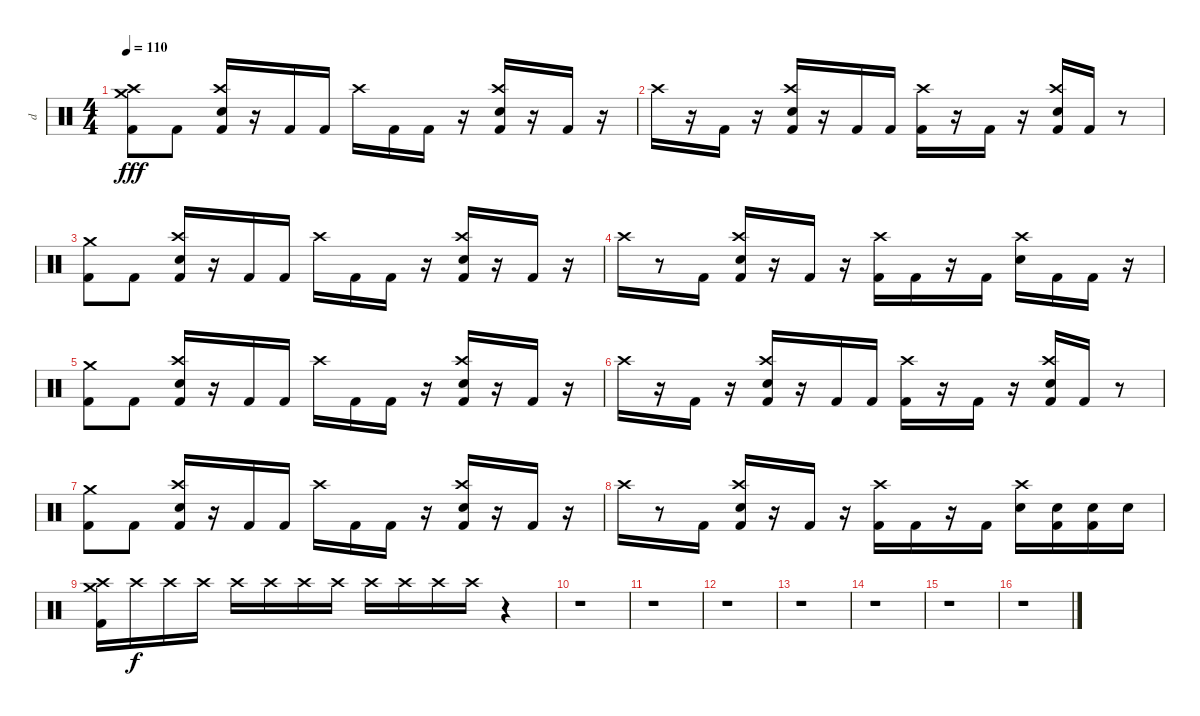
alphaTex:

\track ("d" "d") {instrument percussion}
\staff {score}
\articulation defaults
\ts (4 4)
\tempo 110
\clef neutral
\ks c
("Crash medium (hit)" "Kick (hit) 2" "Crash high (hit)").8{dy fff} "Kick (hit) 2".8 ("Electric Snare (hit)" "Kick (hit) 2" "Crash high (hit)").16 r.16 "Kick (hit) 2".16 "Kick (hit) 2".16 "Crash high (hit)".16 "Kick (hit) 2".16 "Kick (hit) 2".16 r.16 ("Crash high (hit)" "Kick (hit) 2" "Electric Snare (hit)").16 r.16 "Kick (hit) 2".16 r.16 |
"Crash high (hit)".16 r.16 "Kick (hit) 2".16 r.16 ("Crash high (hit)" "Kick (hit) 2" "Electric Snare (hit)").16 r.16 "Kick (hit) 2".16 "Kick (hit) 2".16 ("Kick (hit) 2" "Crash high (hit)").16 r.16 "Kick (hit) 2".16 r.16 ("Kick (hit) 2" "Electric Snare (hit)" "Crash high (hit)").16 "Kick (hit) 2".16 r.8 |
("Kick (hit) 2" "Crash medium (hit)").8 "Kick (hit) 2".8 ("Crash high (hit)" "Kick (hit) 2" "Electric Snare (hit)").16 r.16 "Kick (hit) 2".16 "Kick (hit) 2".16 "Crash high (hit)".16 "Kick (hit) 2".16 "Kick (hit) 2".16 r.16 ("Kick (hit) 2" "Crash high (hit)" "Electric Snare (hit)").16 r.16 "Kick (hit) 2".16 r.16 |
"Crash high (hit)".16 r.8 "Kick (hit) 2".16 ("Electric Snare (hit)" "Kick (hit) 2" "Crash high (hit)").16 r.16 "Kick (hit) 2".16 r.16 ("Kick (hit) 2" "Crash high (hit)").16 "Kick (hit) 2".16 r.16 "Kick (hit) 2".16 ("Electric Snare (hit)" "Crash high (hit)").16 "Kick (hit) 2".16 "Kick (hit) 2".16 r.16 |
("Crash medium (hit)" "Kick (hit) 2").8 "Kick (hit) 2".8 ("Electric Snare (hit)" "Kick (hit) 2" "Crash high (hit)").16 r.16 "Kick (hit) 2".16 "Kick (hit) 2".16 "Crash high (hit)".16 "Kick (hit) 2".16 "Kick (hit) 2".16 r.16 ("Crash high (hit)" "Kick (hit) 2" "Electric Snare (hit)").16 r.16 "Kick (hit) 2".16 r.16 |
"Crash high (hit)".16 r.16 "Kick (hit) 2".16 r.16 ("Crash high (hit)" "Kick (hit) 2" "Electric Snare (hit)").16 r.16 "Kick (hit) 2".16 "Kick (hit) 2".16 ("Kick (hit) 2" "Crash high (hit)").16 r.16 "Kick (hit) 2".16 r.16 ("Kick (hit) 2" "Electric Snare (hit)" "Crash high (hit)").16 "Kick (hit) 2".16 r.8 |
("Kick (hit) 2" "Crash medium (hit)").8 "Kick (hit) 2".8 ("Crash high (hit)" "Kick (hit) 2" "Electric Snare (hit)").16 r.16 "Kick (hit) 2".16 "Kick (hit) 2".16 "Crash high (hit)".16 "Kick (hit) 2".16 "Kick (hit) 2".16 r.16 ("Electric Snare (hit)" "Kick (hit) 2" "Crash high (hit)").16 r.16 "Kick (hit) 2".16 r.16 |
"Crash high (hit)".16 r.8 "Kick (hit) 2".16 ("Electric Snare (hit)" "Kick (hit) 2" "Crash high (hit)").16 r.16 "Kick (hit) 2".16 r.16 ("Kick (hit) 2" "Crash high (hit)").16 "Kick (hit) 2".16 r.16 "Kick (hit) 2".16 ("Electric Snare (hit)" "Crash high (hit)").16 ("Kick (hit) 2" "Electric Snare (hit)").16 ("Electric Snare (hit)" "Kick (hit) 2").16 "Electric Snare (hit)".16 |
("Crash high (hit)" "Kick (hit) 2" "Crash medium (hit)").16 "Crash high (hit)".16{dy f} "Crash high (hit)".16 "Crash high (hit)".16 "Crash high (hit)".16 "Crash high (hit)".16 "Crash high (hit)".16 "Crash high (hit)".16 "Crash high (hit)".16 "Crash high (hit)".16 "Crash high (hit)".16 "Crash high (hit)".16 r.4 |
r.1 |
r.1 |
r.1 |
r.1 |
r.1 |
r.1 |
r.1
